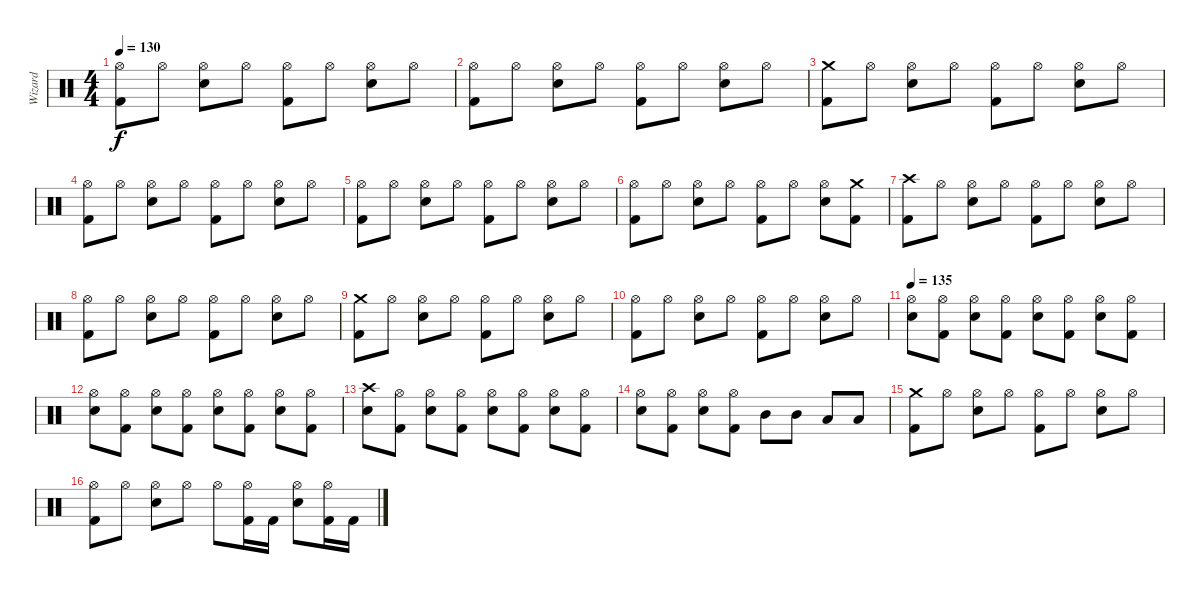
\track ("Wizard" "Wizard") {instrument percussion}
\staff {score}
\articulation defaults
\ts (4 4)
\tempo 130
\clef neutral
\ks c
("Hi-Hat (open)" "Kick (hit) 2").8{dy f} "Hi-Hat (open)".8 ("Hi-Hat (open)" "Snare (hit) 2").8 "Hi-Hat (open)".8 ("Hi-Hat (open)" "Kick (hit) 2").8 "Hi-Hat (open)".8 ("Hi-Hat (open)" "Snare (hit) 2").8 "Hi-Hat (open)".8 |
("Hi-Hat (open)" "Kick (hit) 2").8 "Hi-Hat (open)".8 ("Hi-Hat (open)" "Snare (hit) 2").8 "Hi-Hat (open)".8 ("Hi-Hat (open)" "Kick (hit) 2").8 "Hi-Hat (open)".8 ("Hi-Hat (open)" "Snare (hit) 2").8 "Hi-Hat (open)".8 |
("Crash medium (hit)" "Kick (hit) 2").8 "Hi-Hat (open)".8 ("Hi-Hat (open)" "Snare (hit) 2").8 "Hi-Hat (open)".8 ("Hi-Hat (open)" "Kick (hit) 2").8 "Hi-Hat (open)".8 ("Hi-Hat (open)" "Snare (hit) 2").8 "Hi-Hat (open)".8 |
("Hi-Hat (open)" "Kick (hit) 2").8 "Hi-Hat (open)".8 ("Hi-Hat (open)" "Snare (hit) 2").8 "Hi-Hat (open)".8 ("Hi-Hat (open)" "Kick (hit) 2").8 "Hi-Hat (open)".8 ("Hi-Hat (open)" "Snare (hit) 2").8 "Hi-Hat (open)".8 |
("Hi-Hat (open)" "Kick (hit) 2").8 "Hi-Hat (open)".8 ("Hi-Hat (open)" "Snare (hit) 2").8 "Hi-Hat (open)".8 ("Hi-Hat (open)" "Kick (hit) 2").8 "Hi-Hat (open)".8 ("Hi-Hat (open)" "Snare (hit) 2").8 "Hi-Hat (open)".8 |
("Hi-Hat (open)" "Kick (hit) 2").8 "Hi-Hat (open)".8 ("Hi-Hat (open)" "Snare (hit) 2").8 "Hi-Hat (open)".8 ("Hi-Hat (open)" "Kick (hit) 2").8 "Hi-Hat (open)".8 ("Hi-Hat (open)" "Snare (hit) 2").8 ("Crash medium (hit)" "Kick (hit) 2").8 |
("Crash high (hit)" "Kick (hit) 2").8 "Hi-Hat (open)".8 ("Hi-Hat (open)" "Snare (hit) 2").8 "Hi-Hat (open)".8 ("Hi-Hat (open)" "Kick (hit) 2").8 "Hi-Hat (open)".8 ("Hi-Hat (open)" "Snare (hit) 2").8 "Hi-Hat (open)".8 |
("Hi-Hat (open)" "Kick (hit) 2").8 "Hi-Hat (open)".8 ("Hi-Hat (open)" "Snare (hit) 2").8 "Hi-Hat (open)".8 ("Hi-Hat (open)" "Kick (hit) 2").8 "Hi-Hat (open)".8 ("Hi-Hat (open)" "Snare (hit) 2").8 "Hi-Hat (open)".8 |
("Crash medium (hit)" "Kick (hit) 2").8 "Hi-Hat (open)".8 ("Hi-Hat (open)" "Snare (hit) 2").8 "Hi-Hat (open)".8 ("Hi-Hat (open)" "Kick (hit) 2").8 "Hi-Hat (open)".8 ("Hi-Hat (open)" "Snare (hit) 2").8 "Hi-Hat (open)".8 |
("Hi-Hat (open)" "Kick (hit) 2").8 "Hi-Hat (open)".8 ("Hi-Hat (open)" "Snare (hit) 2").8 "Hi-Hat (open)".8 ("Hi-Hat (open)" "Kick (hit) 2").8 "Hi-Hat (open)".8 ("Hi-Hat (open)" "Snare (hit) 2").8 "Hi-Hat (open)".8 |
\tempo 135
("Hi-Hat (open)" "Snare (hit) 2").8 ("Hi-Hat (open)" "Kick (hit) 2").8 ("Hi-Hat (open)" "Snare (hit) 2").8 ("Hi-Hat (open)" "Kick (hit) 2").8 ("Hi-Hat (open)" "Snare (hit) 2").8 ("Hi-Hat (open)" "Kick (hit) 2").8 ("Hi-Hat (open)" "Snare (hit) 2").8 ("Hi-Hat (open)" "Kick (hit) 2").8 |
("Hi-Hat (open)" "Snare (hit) 2").8 ("Hi-Hat (open)" "Kick (hit) 2").8 ("Hi-Hat (open)" "Snare (hit) 2").8 ("Hi-Hat (open)" "Kick (hit) 2").8 ("Hi-Hat (open)" "Snare (hit) 2").8 ("Hi-Hat (open)" "Kick (hit) 2").8 ("Hi-Hat (open)" "Snare (hit) 2").8 ("Hi-Hat (open)" "Kick (hit) 2").8 |
("Crash high (hit)" "Snare (hit) 2").8 ("Hi-Hat (open)" "Kick (hit) 2").8 ("Hi-Hat (open)" "Snare (hit) 2").8 ("Hi-Hat (open)" "Kick (hit) 2").8 ("Hi-Hat (open)" "Snare (hit) 2").8 ("Hi-Hat (open)" "Kick (hit) 2").8 ("Hi-Hat (open)" "Snare (hit) 2").8 ("Hi-Hat (open)" "Kick (hit) 2").8 |
("Hi-Hat (open)" "Snare (hit) 2").8 ("Hi-Hat (open)" "Kick (hit) 2").8 ("Hi-Hat (open)" "Snare (hit) 2").8 ("Hi-Hat (open)" "Kick (hit) 2").8 "Mid Tom (hit)".8 "Mid Tom (hit)".8 "Low Tom (hit)".8 "Low Tom (hit)".8 |
("Crash medium (hit)" "Kick (hit) 2").8 "Hi-Hat (open)".8 ("Hi-Hat (open)" "Snare (hit) 2").8 "Hi-Hat (open)".8 ("Hi-Hat (open)" "Kick (hit) 2").8 "Hi-Hat (open)".8 ("Hi-Hat (open)" "Snare (hit) 2").8 "Hi-Hat (open)".8 |
("Hi-Hat (open)" "Kick (hit) 2").8 "Hi-Hat (open)".8 ("Hi-Hat (open)" "Snare (hit) 2").8 "Hi-Hat (open)".8 "Hi-Hat (open)".8 ("Hi-Hat (open)" "Kick (hit) 2").16 "Kick (hit) 2".16 ("Hi-Hat (open)" "Snare (hit) 2").8 ("Hi-Hat (open)" "Kick (hit) 2").16 "Kick (hit) 2".16
